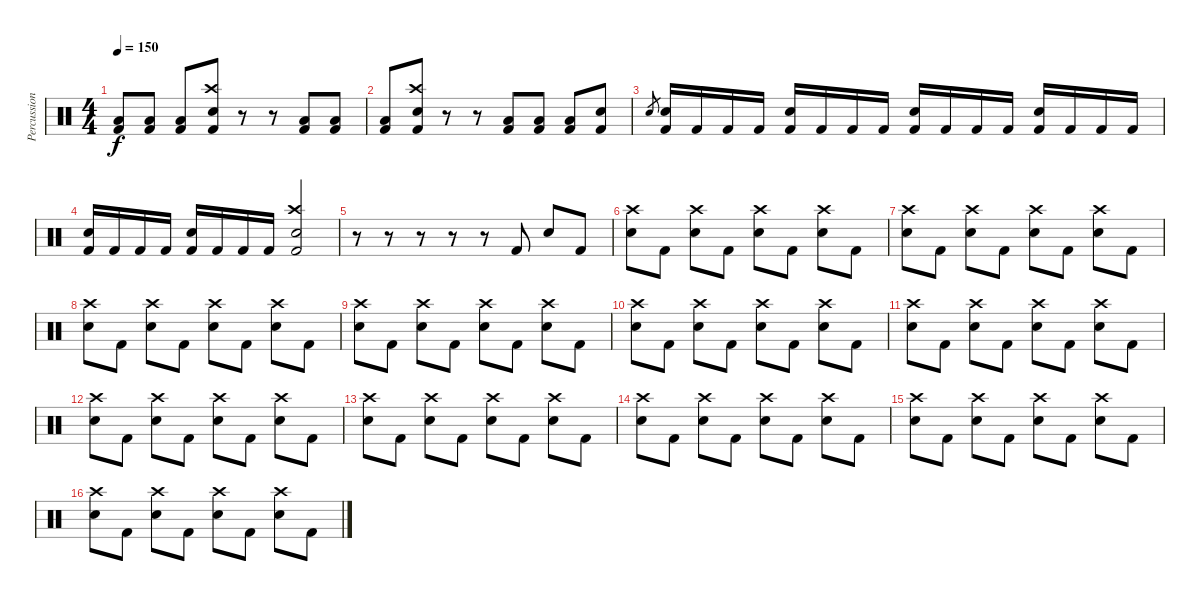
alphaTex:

\track ("Percussion" "Percussion") {instrument percussion}
\staff {score}
\articulation defaults
\ts (4 4)
\tempo 150
\clef neutral
\ks c
("Low Tom (hit)" "Kick (hit) 2").8{dy f} ("Low Tom (hit)" "Kick (hit) 2").8 ("Low Tom (hit)" "Kick (hit) 2").8 ("Crash high (hit)" "Electric Snare (hit)" "Kick (hit) 2").8 r.8 r.8 ("Low Tom (hit)" "Kick (hit) 2").8 ("Low Tom (hit)" "Kick (hit) 2").8 |
("Low Tom (hit)" "Kick (hit) 2").8 ("Kick (hit) 2" "Crash high (hit)" "Electric Snare (hit)").8 r.8 r.8 ("Low Tom (hit)" "Kick (hit) 2").8 ("Low Tom (hit)" "Kick (hit) 2").8 ("Low Tom (hit)" "Kick (hit) 2").8 ("Electric Snare (hit)" "Kick (hit) 2").8 |
"Electric Snare (hit)".8{gr} ("Kick (hit) 2" "Electric Snare (hit)").16 "Kick (hit) 2".16 "Kick (hit) 2".16 "Kick (hit) 2".16 ("Kick (hit) 2" "Electric Snare (hit)").16 "Kick (hit) 2".16 "Kick (hit) 2".16 "Kick (hit) 2".16 ("Kick (hit) 2" "Electric Snare (hit)").16 "Kick (hit) 2".16 "Kick (hit) 2".16 "Kick (hit) 2".16 ("Kick (hit) 2" "Electric Snare (hit)").16 "Kick (hit) 2".16 "Kick (hit) 2".16 "Kick (hit) 2".16 |
("Kick (hit) 2" "Electric Snare (hit)").16 "Kick (hit) 2".16 "Kick (hit) 2".16 "Kick (hit) 2".16 ("Kick (hit) 2" "Electric Snare (hit)").16 "Kick (hit) 2".16 "Kick (hit) 2".16 "Kick (hit) 2".16 ("Kick (hit) 2" "Electric Snare (hit)" "Crash high (hit)").2 |
r.8 r.8 r.8 r.8 r.8 "Kick (hit) 2".8 "Electric Snare (hit)".8 "Kick (hit) 2".8 |
("Crash high (hit)" "Snare (hit) 2").8 "Kick (hit) 2".8 ("Crash high (hit)" "Snare (hit) 2").8 "Kick (hit) 2".8 ("Crash high (hit)" "Snare (hit) 2").8 "Kick (hit) 2".8 ("Crash high (hit)" "Snare (hit) 2").8 "Kick (hit) 2".8 |
("Crash high (hit)" "Snare (hit) 2").8 "Kick (hit) 2".8 ("Crash high (hit)" "Snare (hit) 2").8 "Kick (hit) 2".8 ("Crash high (hit)" "Snare (hit) 2").8 "Kick (hit) 2".8 ("Crash high (hit)" "Snare (hit) 2").8 "Kick (hit) 2".8 |
("Crash high (hit)" "Snare (hit) 2").8 "Kick (hit) 2".8 ("Crash high (hit)" "Snare (hit) 2").8 "Kick (hit) 2".8 ("Crash high (hit)" "Snare (hit) 2").8 "Kick (hit) 2".8 ("Crash high (hit)" "Snare (hit) 2").8 "Kick (hit) 2".8 |
("Crash high (hit)" "Snare (hit) 2").8 "Kick (hit) 2".8 ("Crash high (hit)" "Snare (hit) 2").8 "Kick (hit) 2".8 ("Crash high (hit)" "Snare (hit) 2").8 "Kick (hit) 2".8 ("Crash high (hit)" "Snare (hit) 2").8 "Kick (hit) 2".8 |
("Crash high (hit)" "Snare (hit) 2").8 "Kick (hit) 2".8 ("Crash high (hit)" "Snare (hit) 2").8 "Kick (hit) 2".8 ("Crash high (hit)" "Snare (hit) 2").8 "Kick (hit) 2".8 ("Crash high (hit)" "Snare (hit) 2").8 "Kick (hit) 2".8 |
("Crash high (hit)" "Snare (hit) 2").8 "Kick (hit) 2".8 ("Crash high (hit)" "Snare (hit) 2").8 "Kick (hit) 2".8 ("Crash high (hit)" "Snare (hit) 2").8 "Kick (hit) 2".8 ("Crash high (hit)" "Snare (hit) 2").8 "Kick (hit) 2".8 |
("Crash high (hit)" "Snare (hit) 2").8 "Kick (hit) 2".8 ("Crash high (hit)" "Snare (hit) 2").8 "Kick (hit) 2".8 ("Crash high (hit)" "Snare (hit) 2").8 "Kick (hit) 2".8 ("Crash high (hit)" "Snare (hit) 2").8 "Kick (hit) 2".8 |
("Crash high (hit)" "Snare (hit) 2").8 "Kick (hit) 2".8 ("Crash high (hit)" "Snare (hit) 2").8 "Kick (hit) 2".8 ("Crash high (hit)" "Snare (hit) 2").8 "Kick (hit) 2".8 ("Crash high (hit)" "Snare (hit) 2").8 "Kick (hit) 2".8 |
("Crash high (hit)" "Snare (hit) 2").8 "Kick (hit) 2".8 ("Crash high (hit)" "Snare (hit) 2").8 "Kick (hit) 2".8 ("Crash high (hit)" "Snare (hit) 2").8 "Kick (hit) 2".8 ("Crash high (hit)" "Snare (hit) 2").8 "Kick (hit) 2".8 |
("Crash high (hit)" "Snare (hit) 2").8 "Kick (hit) 2".8 ("Crash high (hit)" "Snare (hit) 2").8 "Kick (hit) 2".8 ("Crash high (hit)" "Snare (hit) 2").8 "Kick (hit) 2".8 ("Crash high (hit)" "Snare (hit) 2").8 "Kick (hit) 2".8 |
("Crash high (hit)" "Snare (hit) 2").8 "Kick (hit) 2".8 ("Crash high (hit)" "Snare (hit) 2").8 "Kick (hit) 2".8 ("Crash high (hit)" "Snare (hit) 2").8 "Kick (hit) 2".8 ("Crash high (hit)" "Snare (hit) 2").8 "Kick (hit) 2".8
